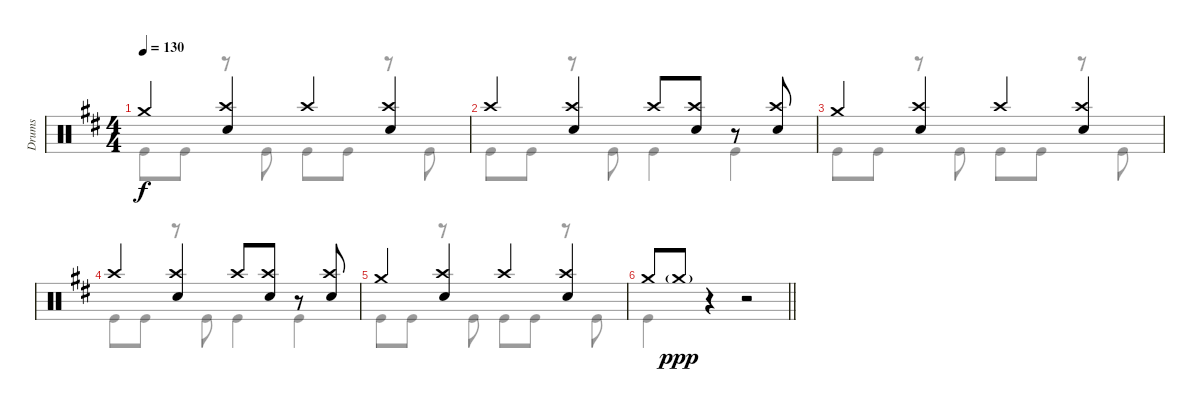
\track ("Drums" "Drums") {instrument percussion}
\staff {score}
\articulation defaults
\voice
\ts (4 4)
\tempo 130
\clef neutral
\ks d "Crash medium (hit)".4{dy f}
("Crash high (hit)" "Electric Snare (hit)").4 "Crash high (hit)".4 ("Crash high (hit)" "Electric Snare (hit)").4 |
"Crash high (hit)".4 ("Crash high (hit)" "Electric Snare (hit)").4 "Crash high (hit)".8 ("Crash high (hit)" "Electric Snare (hit)").8 r.8 ("Crash high (hit)" "Electric Snare (hit)").8 |
"Crash medium (hit)".4 ("Crash high (hit)" "Electric Snare (hit)").4 "Crash high (hit)".4 ("Crash high (hit)" "Electric Snare (hit)").4 |
"Crash high (hit)".4 ("Crash high (hit)" "Electric Snare (hit)").4 "Crash high (hit)".8 ("Crash high (hit)" "Electric Snare (hit)").8 r.8 ("Crash high (hit)" "Electric Snare (hit)").8 |
"Crash medium (hit)".4 ("Crash high (hit)" "Electric Snare (hit)").4 "Crash high (hit)".4 ("Crash high (hit)" "Electric Snare (hit)").4 |
\barLineRight lightlight "Crash medium (hit)".8 "Crash medium (hit)"{g}.8{dy ppp}
r.4 r.2
\voice
\clef neutral
\ottava regular
\simile none
\ks d "Kick (hit)".8{dy f} "Kick (hit)".8
r.8 "Kick (hit)".8 "Kick (hit)".8 "Kick (hit)".8 r.8 "Kick (hit)".8 |
"Kick (hit)".8 "Kick (hit)".8 r.8 "Kick (hit)".8 "Kick (hit)".4 "Kick (hit)".4 |
"Kick (hit)".8 "Kick (hit)".8 r.8 "Kick (hit)".8 "Kick (hit)".8 "Kick (hit)".8 r.8 "Kick (hit)".8 |
"Kick (hit)".8 "Kick (hit)".8 r.8 "Kick (hit)".8 "Kick (hit)".4 "Kick (hit)".4 |
"Kick (hit)".8 "Kick (hit)".8 r.8 "Kick (hit)".8 "Kick (hit)".8 "Kick (hit)".8 r.8 "Kick (hit)".8 |
\barLineRight lightlight "Kick (hit)".4
r.4 r.2
